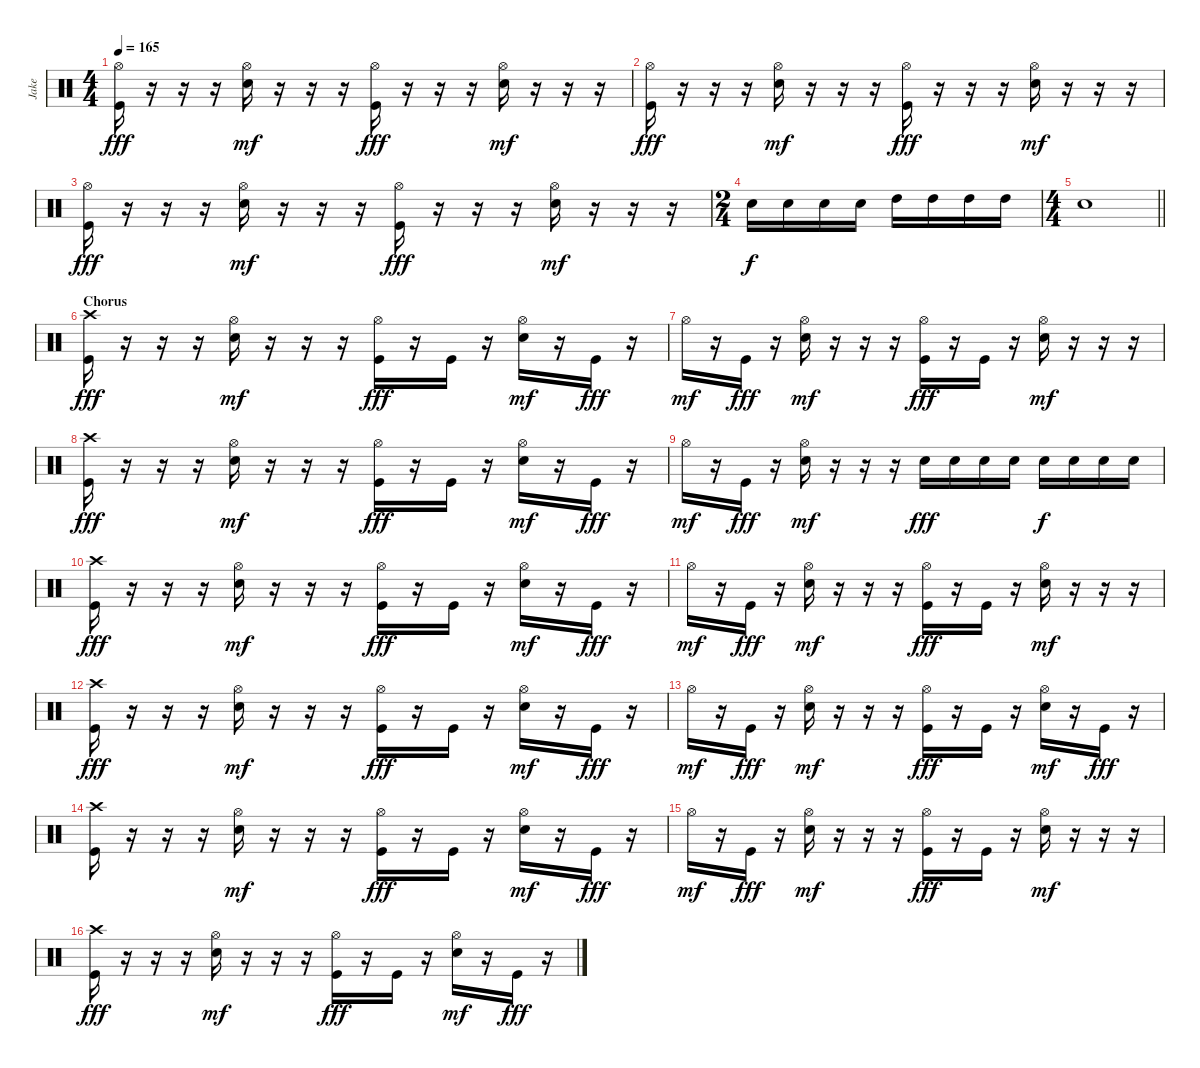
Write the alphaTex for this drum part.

\track ("Jake" "Jake") {instrument percussion}
\staff {score}
\articulation defaults
\ts (4 4)
\tempo 165
\clef neutral
\ks c
("Hi-Hat (open)" "Kick (hit)").16{dy fff} r.16 r.16 r.16 ("Hi-Hat (open)" "Electric Snare (hit)").16{dy mf} r.16 r.16 r.16 ("Hi-Hat (open)" "Kick (hit)").16{dy fff} r.16 r.16 r.16 ("Hi-Hat (open)" "Electric Snare (hit)").16{dy mf} r.16 r.16 r.16 |
("Hi-Hat (open)" "Kick (hit)").16{dy fff} r.16 r.16 r.16 ("Hi-Hat (open)" "Electric Snare (hit)").16{dy mf} r.16 r.16 r.16 ("Hi-Hat (open)" "Kick (hit)").16{dy fff} r.16 r.16 r.16 ("Hi-Hat (open)" "Electric Snare (hit)").16{dy mf} r.16 r.16 r.16 |
("Hi-Hat (open)" "Kick (hit)").16{dy fff} r.16 r.16 r.16 ("Hi-Hat (open)" "Electric Snare (hit)").16{dy mf} r.16 r.16 r.16 ("Hi-Hat (open)" "Kick (hit)").16{dy fff} r.16 r.16 r.16 ("Hi-Hat (open)" "Electric Snare (hit)").16{dy mf} r.16 r.16 r.16 |
\ts (2 4)
"Electric Snare (hit)".16{dy f} "Electric Snare (hit)".16 "Electric Snare (hit)".16 "Electric Snare (hit)".16 "High Tom (hit)".16 "High Tom (hit)".16 "High Tom (hit)".16 "High Tom (hit)".16 |
\ts (4 4)
\barLineRight lightlight "Electric Snare (hit)".1
|
\section ("" "Chorus")
("Crash high (hit)" "Kick (hit)").16{dy fff} r.16 r.16 r.16 ("Hi-Hat (open)" "Electric Snare (hit)").16{dy mf} r.16 r.16 r.16 ("Hi-Hat (open)" "Kick (hit)").16{dy fff} r.16 "Kick (hit)".16 r.16 ("Hi-Hat (open)" "Electric Snare (hit)").16{dy mf} r.16 "Kick (hit)".16{dy fff} r.16 |
"Hi-Hat (open)".16{dy mf} r.16 "Kick (hit)".16{dy fff} r.16 ("Hi-Hat (open)" "Electric Snare (hit)").16{dy mf} r.16 r.16 r.16 ("Hi-Hat (open)" "Kick (hit)").16{dy fff} r.16 "Kick (hit)".16 r.16 ("Hi-Hat (open)" "Electric Snare (hit)").16{dy mf} r.16 r.16 r.16 |
("Crash high (hit)" "Kick (hit)").16{dy fff} r.16 r.16 r.16 ("Hi-Hat (open)" "Electric Snare (hit)").16{dy mf} r.16 r.16 r.16 ("Hi-Hat (open)" "Kick (hit)").16{dy fff} r.16 "Kick (hit)".16 r.16 ("Hi-Hat (open)" "Electric Snare (hit)").16{dy mf} r.16 "Kick (hit)".16{dy fff} r.16 |
"Hi-Hat (open)".16{dy mf} r.16 "Kick (hit)".16{dy fff} r.16 ("Hi-Hat (open)" "Electric Snare (hit)").16{dy mf} r.16 r.16 r.16 "Electric Snare (hit)".16{dy fff} "Electric Snare (hit)".16 "Electric Snare (hit)".16 "Electric Snare (hit)".16 "Electric Snare (hit)".16{dy f} "Electric Snare (hit)".16 "Electric Snare (hit)".16 "Electric Snare (hit)".16 |
("Crash high (hit)" "Kick (hit)").16{dy fff} r.16 r.16 r.16 ("Hi-Hat (open)" "Electric Snare (hit)").16{dy mf} r.16 r.16 r.16 ("Hi-Hat (open)" "Kick (hit)").16{dy fff} r.16 "Kick (hit)".16 r.16 ("Hi-Hat (open)" "Electric Snare (hit)").16{dy mf} r.16 "Kick (hit)".16{dy fff} r.16 |
"Hi-Hat (open)".16{dy mf} r.16 "Kick (hit)".16{dy fff} r.16 ("Hi-Hat (open)" "Electric Snare (hit)").16{dy mf} r.16 r.16 r.16 ("Hi-Hat (open)" "Kick (hit)").16{dy fff} r.16 "Kick (hit)".16 r.16 ("Hi-Hat (open)" "Electric Snare (hit)").16{dy mf} r.16 r.16 r.16 |
("Crash high (hit)" "Kick (hit)").16{dy fff} r.16 r.16 r.16 ("Hi-Hat (open)" "Electric Snare (hit)").16{dy mf} r.16 r.16 r.16 ("Hi-Hat (open)" "Kick (hit)").16{dy fff} r.16 "Kick (hit)".16 r.16 ("Hi-Hat (open)" "Electric Snare (hit)").16{dy mf} r.16 "Kick (hit)".16{dy fff} r.16 |
"Hi-Hat (open)".16{dy mf} r.16 "Kick (hit)".16{dy fff} r.16 ("Hi-Hat (open)" "Electric Snare (hit)").16{dy mf} r.16 r.16 r.16 ("Hi-Hat (open)" "Kick (hit)").16{dy fff} r.16 "Kick (hit)".16 r.16 ("Hi-Hat (open)" "Electric Snare (hit)").16{dy mf} r.16 "Kick (hit)".16{dy fff} r.16 |
("Crash high (hit)" "Kick (hit)").16 r.16 r.16 r.16 ("Hi-Hat (open)" "Electric Snare (hit)").16{dy mf} r.16 r.16 r.16 ("Hi-Hat (open)" "Kick (hit)").16{dy fff} r.16 "Kick (hit)".16 r.16 ("Hi-Hat (open)" "Electric Snare (hit)").16{dy mf} r.16 "Kick (hit)".16{dy fff} r.16 |
"Hi-Hat (open)".16{dy mf} r.16 "Kick (hit)".16{dy fff} r.16 ("Hi-Hat (open)" "Electric Snare (hit)").16{dy mf} r.16 r.16 r.16 ("Hi-Hat (open)" "Kick (hit)").16{dy fff} r.16 "Kick (hit)".16 r.16 ("Hi-Hat (open)" "Electric Snare (hit)").16{dy mf} r.16 r.16 r.16 |
("Crash high (hit)" "Kick (hit)").16{dy fff} r.16 r.16 r.16 ("Hi-Hat (open)" "Electric Snare (hit)").16{dy mf} r.16 r.16 r.16 ("Hi-Hat (open)" "Kick (hit)").16{dy fff} r.16 "Kick (hit)".16 r.16 ("Hi-Hat (open)" "Electric Snare (hit)").16{dy mf} r.16 "Kick (hit)".16{dy fff} r.16
